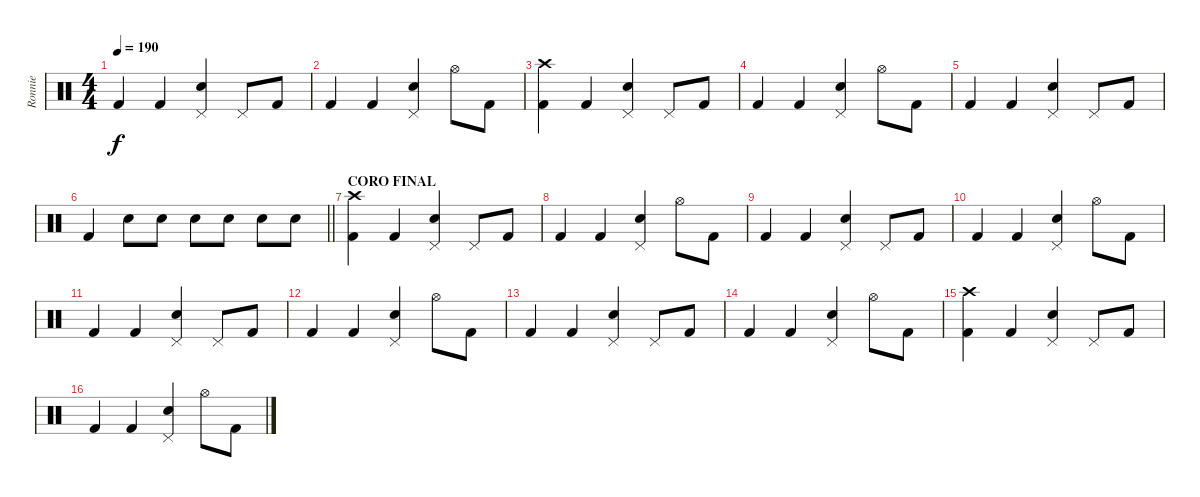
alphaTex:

\track ("Ronnie" "Ronnie") {instrument percussion}
\staff {score}
\articulation defaults
\ts (4 4)
\tempo 190
\clef neutral
\ks c "Kick (hit) 2".4{dy f} "Kick (hit) 2".4
("Electric Snare (hit)" "Pedal Hi-Hat (hit)").4 "Pedal Hi-Hat (hit)".8 "Kick (hit) 2".8 |
"Kick (hit) 2".4 "Kick (hit) 2".4 ("Electric Snare (hit)" "Pedal Hi-Hat (hit)").4 "Hi-Hat (open)".8 "Kick (hit) 2".8 |
("Crash high (hit)" "Kick (hit) 2").4 "Kick (hit) 2".4 ("Electric Snare (hit)" "Pedal Hi-Hat (hit)").4 "Pedal Hi-Hat (hit)".8 "Kick (hit) 2".8 |
"Kick (hit) 2".4 "Kick (hit) 2".4 ("Electric Snare (hit)" "Pedal Hi-Hat (hit)").4 "Hi-Hat (open)".8 "Kick (hit) 2".8 |
"Kick (hit) 2".4 "Kick (hit) 2".4 ("Electric Snare (hit)" "Pedal Hi-Hat (hit)").4 "Pedal Hi-Hat (hit)".8 "Kick (hit) 2".8 |
\barLineRight lightlight "Kick (hit) 2".4 "Electric Snare (hit)".8 "Electric Snare (hit)".8 "Electric Snare (hit)".8 "Electric Snare (hit)".8 "Electric Snare (hit)".8 "Electric Snare (hit)".8
|
\section ("" "CORO FINAL")
("Crash high (hit)" "Kick (hit) 2").4 "Kick (hit) 2".4 ("Electric Snare (hit)" "Pedal Hi-Hat (hit)").4 "Pedal Hi-Hat (hit)".8 "Kick (hit) 2".8 |
"Kick (hit) 2".4 "Kick (hit) 2".4 ("Electric Snare (hit)" "Pedal Hi-Hat (hit)").4 "Hi-Hat (open)".8 "Kick (hit) 2".8 |
"Kick (hit) 2".4 "Kick (hit) 2".4 ("Electric Snare (hit)" "Pedal Hi-Hat (hit)").4 "Pedal Hi-Hat (hit)".8 "Kick (hit) 2".8 |
"Kick (hit) 2".4 "Kick (hit) 2".4 ("Electric Snare (hit)" "Pedal Hi-Hat (hit)").4 "Hi-Hat (open)".8 "Kick (hit) 2".8 |
"Kick (hit) 2".4 "Kick (hit) 2".4 ("Electric Snare (hit)" "Pedal Hi-Hat (hit)").4 "Pedal Hi-Hat (hit)".8 "Kick (hit) 2".8 |
"Kick (hit) 2".4 "Kick (hit) 2".4 ("Electric Snare (hit)" "Pedal Hi-Hat (hit)").4 "Hi-Hat (open)".8 "Kick (hit) 2".8 |
"Kick (hit) 2".4 "Kick (hit) 2".4 ("Electric Snare (hit)" "Pedal Hi-Hat (hit)").4 "Pedal Hi-Hat (hit)".8 "Kick (hit) 2".8 |
"Kick (hit) 2".4 "Kick (hit) 2".4 ("Electric Snare (hit)" "Pedal Hi-Hat (hit)").4 "Hi-Hat (open)".8 "Kick (hit) 2".8 |
("Crash high (hit)" "Kick (hit) 2").4 "Kick (hit) 2".4 ("Electric Snare (hit)" "Pedal Hi-Hat (hit)").4 "Pedal Hi-Hat (hit)".8 "Kick (hit) 2".8 |
"Kick (hit) 2".4 "Kick (hit) 2".4 ("Electric Snare (hit)" "Pedal Hi-Hat (hit)").4 "Hi-Hat (open)".8 "Kick (hit) 2".8
